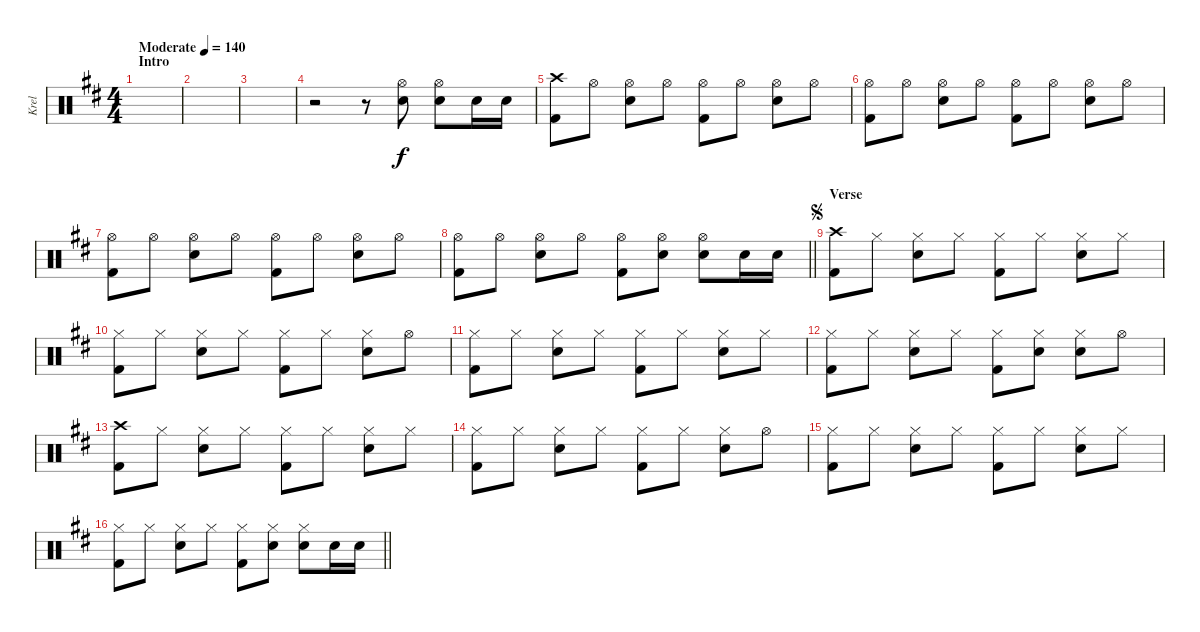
\track ("Krel" "Krel") {instrument percussion}
\staff {score}
\articulation defaults
\ts (4 4)
\section ("" "Intro")
\tempo (140 "Moderate")
\clef neutral
\ks d
|
|
|
r.2 r.8 ("Hi-Hat (open)" "Snare (hit) 2").8 ("Hi-Hat (open)" "Snare (hit) 2").8 "Snare (hit) 2".16 "Snare (hit) 2".16 |
("Crash high (hit)" "Kick (hit) 2").8 "Hi-Hat (open)".8 ("Hi-Hat (open)" "Snare (hit) 2").8 "Hi-Hat (open)".8 ("Hi-Hat (open)" "Kick (hit) 2").8 "Hi-Hat (open)".8 ("Hi-Hat (open)" "Snare (hit) 2").8 "Hi-Hat (open)".8 |
("Hi-Hat (open)" "Kick (hit) 2").8 "Hi-Hat (open)".8 ("Hi-Hat (open)" "Snare (hit) 2").8 "Hi-Hat (open)".8 ("Hi-Hat (open)" "Kick (hit) 2").8 "Hi-Hat (open)".8 ("Hi-Hat (open)" "Snare (hit) 2").8 "Hi-Hat (open)".8 |
("Hi-Hat (open)" "Kick (hit) 2").8 "Hi-Hat (open)".8 ("Hi-Hat (open)" "Snare (hit) 2").8 "Hi-Hat (open)".8 ("Hi-Hat (open)" "Kick (hit) 2").8 "Hi-Hat (open)".8 ("Hi-Hat (open)" "Snare (hit) 2").8 "Hi-Hat (open)".8 |
\barLineRight lightlight
("Hi-Hat (open)" "Kick (hit) 2").8 "Hi-Hat (open)".8 ("Hi-Hat (open)" "Snare (hit) 2").8 "Hi-Hat (open)".8 ("Hi-Hat (open)" "Kick (hit) 2").8 ("Hi-Hat (open)" "Snare (hit) 2").8 ("Hi-Hat (open)" "Snare (hit) 2").8 "Snare (hit) 2".16 "Snare (hit) 2".16 |
\section ("" "Verse")
\jump segno
("Crash high (hit)" "Kick (hit) 2").8 "Hi-Hat (closed)".8 ("Hi-Hat (closed)" "Snare (hit) 2").8 "Hi-Hat (closed)".8 ("Hi-Hat (closed)" "Kick (hit) 2").8 "Hi-Hat (closed)".8 ("Hi-Hat (closed)" "Snare (hit) 2").8 "Hi-Hat (closed)".8 |
("Hi-Hat (closed)" "Kick (hit) 2").8 "Hi-Hat (closed)".8 ("Hi-Hat (closed)" "Snare (hit) 2").8 "Hi-Hat (closed)".8 ("Hi-Hat (closed)" "Kick (hit) 2").8 "Hi-Hat (closed)".8 ("Hi-Hat (closed)" "Snare (hit) 2").8 "Hi-Hat (open)".8 |
("Hi-Hat (closed)" "Kick (hit) 2").8 "Hi-Hat (closed)".8 ("Hi-Hat (closed)" "Snare (hit) 2").8 "Hi-Hat (closed)".8 ("Hi-Hat (closed)" "Kick (hit) 2").8 "Hi-Hat (closed)".8 ("Hi-Hat (closed)" "Snare (hit) 2").8 "Hi-Hat (closed)".8 |
("Hi-Hat (closed)" "Kick (hit) 2").8 "Hi-Hat (closed)".8 ("Hi-Hat (closed)" "Snare (hit) 2").8 "Hi-Hat (closed)".8 ("Hi-Hat (closed)" "Kick (hit) 2").8 ("Hi-Hat (closed)" "Snare (hit) 2").8 ("Hi-Hat (closed)" "Snare (hit) 2").8 "Hi-Hat (open)".8 |
("Crash high (hit)" "Kick (hit) 2").8 "Hi-Hat (closed)".8 ("Hi-Hat (closed)" "Snare (hit) 2").8 "Hi-Hat (closed)".8 ("Hi-Hat (closed)" "Kick (hit) 2").8 "Hi-Hat (closed)".8 ("Hi-Hat (closed)" "Snare (hit) 2").8 "Hi-Hat (closed)".8 |
("Hi-Hat (closed)" "Kick (hit) 2").8 "Hi-Hat (closed)".8 ("Hi-Hat (closed)" "Snare (hit) 2").8 "Hi-Hat (closed)".8 ("Hi-Hat (closed)" "Kick (hit) 2").8 "Hi-Hat (closed)".8 ("Hi-Hat (closed)" "Snare (hit) 2").8 "Hi-Hat (open)".8 |
("Hi-Hat (closed)" "Kick (hit) 2").8 "Hi-Hat (closed)".8 ("Hi-Hat (closed)" "Snare (hit) 2").8 "Hi-Hat (closed)".8 ("Hi-Hat (closed)" "Kick (hit) 2").8 "Hi-Hat (closed)".8 ("Hi-Hat (closed)" "Snare (hit) 2").8 "Hi-Hat (closed)".8 |
\barLineRight lightlight
("Hi-Hat (closed)" "Kick (hit) 2").8 "Hi-Hat (closed)".8 ("Hi-Hat (closed)" "Snare (hit) 2").8 "Hi-Hat (closed)".8 ("Hi-Hat (closed)" "Kick (hit) 2").8 ("Hi-Hat (closed)" "Snare (hit) 2").8 ("Hi-Hat (closed)" "Snare (hit) 2").8 "Snare (hit) 2".16 "Snare (hit) 2".16
